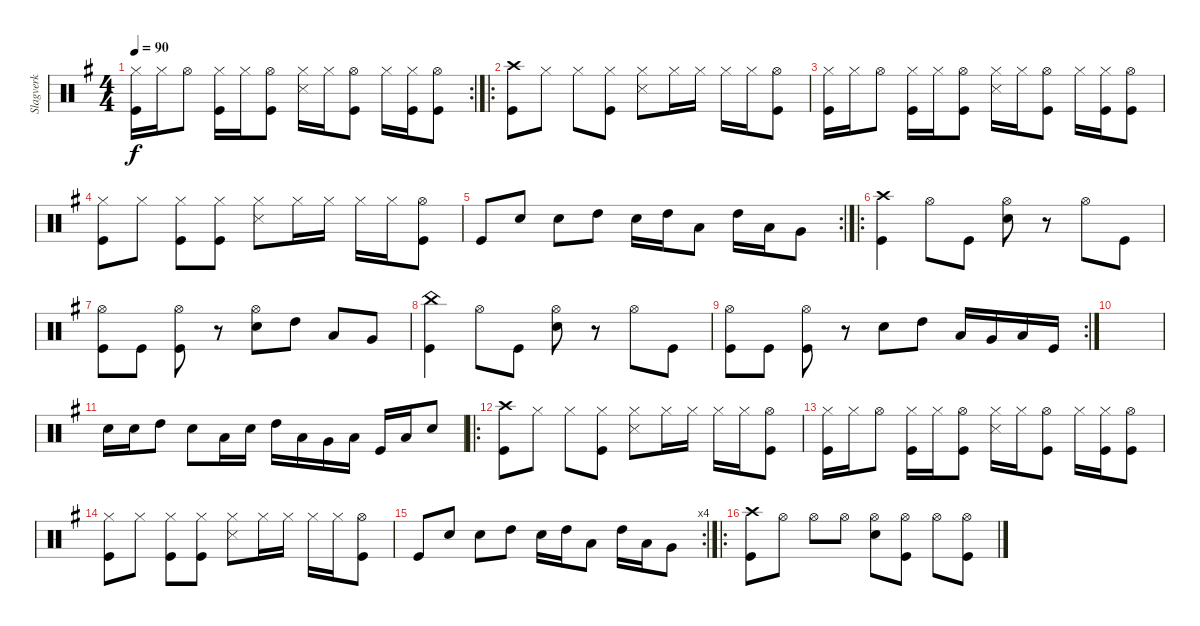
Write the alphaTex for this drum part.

\track ("Slagverk" "Slagverk") {instrument percussion}
\staff {score}
\articulation defaults
\rc 2
\ts (4 4)
\tempo 90
\clef neutral
\ks g
("Hi-Hat (closed)" "Kick (hit)").16{dy f} "Hi-Hat (closed)".16 "Hi-Hat (open)".8 ("Hi-Hat (closed)" "Kick (hit)").16 "Hi-Hat (closed)".16 ("Hi-Hat (open)" "Kick (hit)").8 ("Hi-Hat (closed)" "Snare (side stick) 3").16 "Hi-Hat (closed)".16 ("Hi-Hat (open)" "Kick (hit)").8 "Hi-Hat (closed)".16 ("Hi-Hat (closed)" "Kick (hit)").16 ("Hi-Hat (open)" "Kick (hit)").8 |
\ro
("Crash high (hit)" "Kick (hit)").8 "Hi-Hat (closed)".8 "Hi-Hat (closed)".8 ("Hi-Hat (closed)" "Kick (hit)").8 ("Hi-Hat (closed)" "Snare (side stick) 3").8 "Hi-Hat (closed)".16 "Hi-Hat (closed)".16 "Hi-Hat (closed)".16 "Hi-Hat (closed)".16 ("Hi-Hat (open)" "Kick (hit)").8 |
("Hi-Hat (closed)" "Kick (hit)").16 "Hi-Hat (closed)".16 "Hi-Hat (open)".8 ("Hi-Hat (closed)" "Kick (hit)").16 "Hi-Hat (closed)".16 ("Hi-Hat (open)" "Kick (hit)").8 ("Hi-Hat (closed)" "Snare (side stick) 3").16 "Hi-Hat (closed)".16 ("Hi-Hat (open)" "Kick (hit)").8 "Hi-Hat (closed)".16 ("Hi-Hat (closed)" "Kick (hit)").16 ("Hi-Hat (open)" "Kick (hit)").8 |
("Hi-Hat (closed)" "Kick (hit)").8 "Hi-Hat (closed)".8 ("Hi-Hat (closed)" "Kick (hit)").8 ("Hi-Hat (closed)" "Kick (hit)").8 ("Hi-Hat (closed)" "Snare (side stick) 3").8 "Hi-Hat (closed)".16 "Hi-Hat (closed)".16 "Hi-Hat (closed)".16 "Hi-Hat (closed)".16 ("Hi-Hat (open)" "Kick (hit)").8 |
\rc 2 "Kick (hit)".8 "Electric Snare (hit)".8 "Electric Snare (hit)".8 "High Tom (hit)".8 "Electric Snare (hit)".16 "High Tom (hit)".16 "Low Tom (hit)".8 "High Tom (hit)".16 "Low Tom (hit)".16 "Very Low Tom (hit)".8
|
\ro
("Crash high (hit)" "Kick (hit)").4 "Hi-Hat (open)".8 "Kick (hit)".8 ("Hi-Hat (open)" "Electric Snare (hit)").8 r.8 "Hi-Hat (open)".8 "Kick (hit)".8 |
("Hi-Hat (open)" "Kick (hit)").8 "Kick (hit)".8 ("Hi-Hat (open)" "Kick (hit)").8 r.8 ("Hi-Hat (open)" "Electric Snare (hit)").8 "High Tom (hit)".8 "Low Tom (hit)".8 "Very Low Tom (hit)".8 |
("China (hit)" "Kick (hit)").4 "Hi-Hat (open)".8 "Kick (hit)".8 ("Hi-Hat (open)" "Electric Snare (hit)").8 r.8 "Hi-Hat (open)".8 "Kick (hit)".8 |
\rc 2
("Hi-Hat (open)" "Kick (hit)").8 "Kick (hit)".8 ("Hi-Hat (open)" "Kick (hit)").8 r.8 "Electric Snare (hit)".8 "High Tom (hit)".8 "Low Tom (hit)".16 "Very Low Tom (hit)".16 "Low Floor Tom (hit)".16 "Kick (hit)".16 |
|
"Electric Snare (hit)".16 "Electric Snare (hit)".16 "High Tom (hit)".8 "Electric Snare (hit)".8 "Low Tom (hit)".16 "Electric Snare (hit)".16 "High Tom (hit)".16 "Low Tom (hit)".16 "Very Low Tom (hit)".16 "Low Floor Tom (hit)".16 "Kick (hit)".16 "Low Floor Tom (hit)".16 "Electric Snare (hit)".8 |
\ro
("Crash high (hit)" "Kick (hit)").8 "Hi-Hat (closed)".8 "Hi-Hat (closed)".8 ("Hi-Hat (closed)" "Kick (hit)").8 ("Hi-Hat (closed)" "Snare (side stick) 3").8 "Hi-Hat (closed)".16 "Hi-Hat (closed)".16 "Hi-Hat (closed)".16 "Hi-Hat (closed)".16 ("Hi-Hat (open)" "Kick (hit)").8 |
("Hi-Hat (closed)" "Kick (hit)").16 "Hi-Hat (closed)".16 "Hi-Hat (open)".8 ("Hi-Hat (closed)" "Kick (hit)").16 "Hi-Hat (closed)".16 ("Hi-Hat (open)" "Kick (hit)").8 ("Hi-Hat (closed)" "Snare (side stick) 3").16 "Hi-Hat (closed)".16 ("Hi-Hat (open)" "Kick (hit)").8 "Hi-Hat (closed)".16 ("Hi-Hat (closed)" "Kick (hit)").16 ("Hi-Hat (open)" "Kick (hit)").8 |
("Hi-Hat (closed)" "Kick (hit)").8 "Hi-Hat (closed)".8 ("Hi-Hat (closed)" "Kick (hit)").8 ("Hi-Hat (closed)" "Kick (hit)").8 ("Hi-Hat (closed)" "Snare (side stick) 3").8 "Hi-Hat (closed)".16 "Hi-Hat (closed)".16 "Hi-Hat (closed)".16 "Hi-Hat (closed)".16 ("Hi-Hat (open)" "Kick (hit)").8 |
\rc 4 "Kick (hit)".8 "Electric Snare (hit)".8 "Electric Snare (hit)".8 "High Tom (hit)".8 "Electric Snare (hit)".16 "High Tom (hit)".16 "Low Tom (hit)".8 "High Tom (hit)".16 "Low Tom (hit)".16 "Very Low Tom (hit)".8
|
\ro
("Crash high (hit)" "Kick (hit)").8 "Hi-Hat (open)".8 "Hi-Hat (open)".8 "Hi-Hat (open)".8 ("Hi-Hat (open)" "Electric Snare (hit)").8 ("Hi-Hat (open)" "Kick (hit)").8 "Hi-Hat (open)".8 ("Hi-Hat (open)" "Kick (hit)").8
